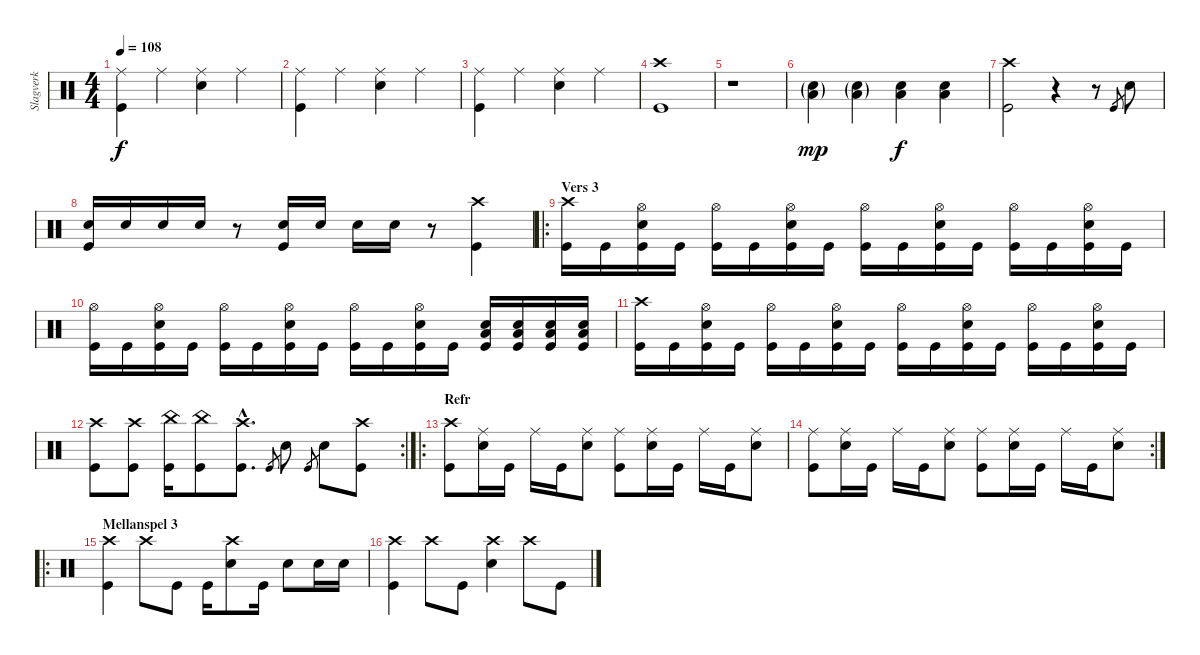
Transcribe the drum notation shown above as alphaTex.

\track ("Slagverk" "Slagverk") {instrument percussion}
\staff {score}
\articulation defaults
\ts (4 4)
\tempo 108
\clef neutral
\ks c
("Ride (middle)" "Kick (hit)").4{dy f} "Ride (middle)".4 ("Ride (middle)" "Electric Snare (hit)").4 "Ride (middle)".4 |
("Ride (middle)" "Kick (hit)").4 "Ride (middle)".4 ("Ride (middle)" "Electric Snare (hit)").4 "Ride (middle)".4 |
("Ride (middle)" "Kick (hit)").4 "Ride (middle)".4 ("Ride (middle)" "Electric Snare (hit)").4 "Ride (middle)".4 |
("Crash high (hit)" "Kick (hit)").1 |
r.1 |
("Electric Snare (hit)"{g} "Low Floor Tom (hit)"{g}).4{dy mp} ("Electric Snare (hit)"{g} "Low Floor Tom (hit)"{g}).4 ("Electric Snare (hit)" "Low Floor Tom (hit)").4{dy f} ("Electric Snare (hit)" "Low Floor Tom (hit)").4 |
("Crash high (hit)" "Kick (hit)").2 r.4 r.8 "Kick (hit)"{sl}.8{gr} "Electric Snare (hit)".8 |
("Electric Snare (hit)" "Kick (hit)").16 "Electric Snare (hit)".16 "Electric Snare (hit)".16 "Electric Snare (hit)".16 r.8 ("Electric Snare (hit)" "Kick (hit)").16 "Electric Snare (hit)".16 "Electric Snare (hit)".16 "Electric Snare (hit)".16 r.8 ("Crash high (hit)" "Kick (hit)").4 |
\ro
\section ("" "Vers 3")
("Crash high (hit)" "Kick (hit)").16 "Kick (hit)".16 ("Hi-Hat (open)" "Electric Snare (hit)" "Kick (hit)").16 "Kick (hit)".16 ("Hi-Hat (open)" "Kick (hit)").16 "Kick (hit)".16 ("Hi-Hat (open)" "Electric Snare (hit)" "Kick (hit)").16 "Kick (hit)".16 ("Hi-Hat (open)" "Kick (hit)").16 "Kick (hit)".16 ("Hi-Hat (open)" "Electric Snare (hit)" "Kick (hit)").16 "Kick (hit)".16 ("Hi-Hat (open)" "Kick (hit)").16 "Kick (hit)".16 ("Hi-Hat (open)" "Electric Snare (hit)" "Kick (hit)").16 "Kick (hit)".16 |
("Hi-Hat (open)" "Kick (hit)").16 "Kick (hit)".16 ("Hi-Hat (open)" "Electric Snare (hit)" "Kick (hit)").16 "Kick (hit)".16 ("Hi-Hat (open)" "Kick (hit)").16 "Kick (hit)".16 ("Hi-Hat (open)" "Electric Snare (hit)" "Kick (hit)").16 "Kick (hit)".16 ("Hi-Hat (open)" "Kick (hit)").16 "Kick (hit)".16 ("Hi-Hat (open)" "Electric Snare (hit)" "Kick (hit)").16 "Kick (hit)".16 ("Electric Snare (hit)" "Low Floor Tom (hit)" "Kick (hit)").16 ("Electric Snare (hit)" "Low Floor Tom (hit)" "Kick (hit)").16 ("Electric Snare (hit)" "Low Floor Tom (hit)" "Kick (hit)").16 ("Electric Snare (hit)" "Low Floor Tom (hit)" "Kick (hit)").16 |
("Crash high (hit)" "Kick (hit)").16 "Kick (hit)".16 ("Hi-Hat (open)" "Electric Snare (hit)" "Kick (hit)").16 "Kick (hit)".16 ("Hi-Hat (open)" "Kick (hit)").16 "Kick (hit)".16 ("Hi-Hat (open)" "Electric Snare (hit)" "Kick (hit)").16 "Kick (hit)".16 ("Hi-Hat (open)" "Kick (hit)").16 "Kick (hit)".16 ("Hi-Hat (open)" "Electric Snare (hit)" "Kick (hit)").16 "Kick (hit)".16 ("Hi-Hat (open)" "Kick (hit)").16 "Kick (hit)".16 ("Hi-Hat (open)" "Electric Snare (hit)" "Kick (hit)").16 "Kick (hit)".16 |
\rc 2
("Crash high (hit)" "Kick (hit)").8 ("Crash high (hit)" "Kick (hit)").8 ("China (hit)" "Kick (hit)").16 ("China (hit)" "Kick (hit)").8 ("Crash high (hit)"{hac} "Kick (hit)"{hac}).8{d} "Kick (hit)"{sl}.8{gr} "Electric Snare (hit)".8 "Kick (hit)"{sl}.8{gr} "Electric Snare (hit)".8 ("Crash high (hit)" "Kick (hit)").8 |
\ro
\section ("" "Refr")
("Crash high (hit)" "Kick (hit)").8 ("Ride (middle)" "Electric Snare (hit)").16 "Kick (hit)".16 "Ride (middle)".16 "Kick (hit)".16 ("Ride (middle)" "Electric Snare (hit)").8 ("Ride (middle)" "Kick (hit)").8 ("Ride (middle)" "Electric Snare (hit)").16 "Kick (hit)".16 "Ride (middle)".16 "Kick (hit)".16 ("Ride (middle)" "Electric Snare (hit)").8 |
\rc 2
("Ride (middle)" "Kick (hit)").8 ("Ride (middle)" "Electric Snare (hit)").16 "Kick (hit)".16 "Ride (middle)".16 "Kick (hit)".16 ("Ride (middle)" "Electric Snare (hit)").8 ("Ride (middle)" "Kick (hit)").8 ("Ride (middle)" "Electric Snare (hit)").16 "Kick (hit)".16 "Ride (middle)".16 "Kick (hit)".16 ("Ride (middle)" "Electric Snare (hit)").8 |
\ro
\section ("" "Mellanspel 3")
("Crash high (hit)" "Kick (hit)").4 "Crash high (hit)".8 "Kick (hit)".8 "Kick (hit)".16 ("Crash high (hit)" "Electric Snare (hit)").8 "Kick (hit)".16 "Electric Snare (hit)".8 "Electric Snare (hit)".16 "Electric Snare (hit)".16 |
("Crash high (hit)" "Kick (hit)").4 "Crash high (hit)".8 "Kick (hit)".8 ("Crash high (hit)" "Electric Snare (hit)").4 "Crash high (hit)".8 "Kick (hit)".8
